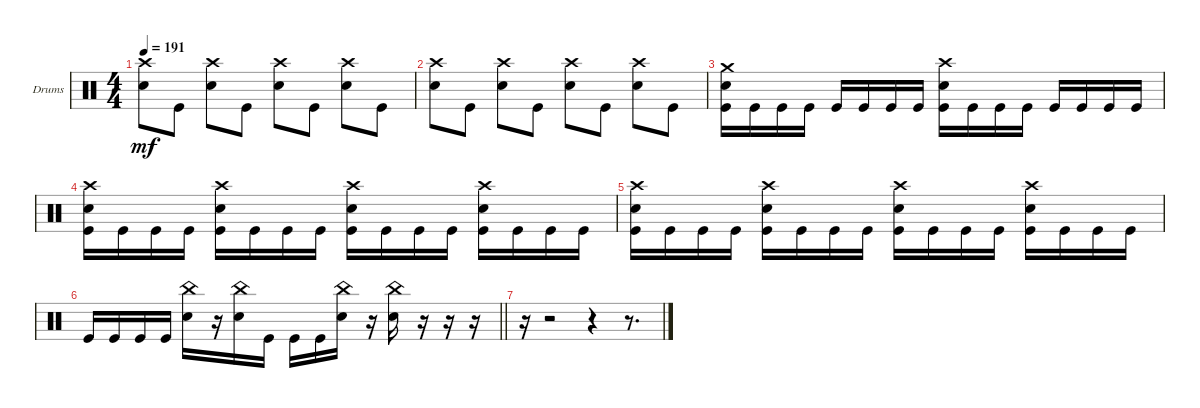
\bracketExtendMode groupsimilarinstruments
\firstSystemTrackNameOrientation horizontal
\otherSystemsTrackNameOrientation horizontal
\track ("Drumkit" "Drums") {instrument percussion}
\staff {score}
\articulation defaults
\ts (4 4)
\tempo 191
\clef neutral
\ks c
("Crash high (hit)" "Snare (hit) 2").8{dy mf} "Kick (hit)".8 ("Crash high (hit)" "Snare (hit) 2").8 "Kick (hit)".8 ("Crash high (hit)" "Snare (hit) 2").8 "Kick (hit)".8 ("Crash high (hit)" "Snare (hit) 2").8 "Kick (hit)".8 |
("Crash high (hit)" "Snare (hit) 2").8 "Kick (hit)".8 ("Crash high (hit)" "Snare (hit) 2").8 "Kick (hit)".8 ("Crash high (hit)" "Snare (hit) 2").8 "Kick (hit)".8 ("Crash high (hit)" "Snare (hit) 2").8 "Kick (hit)".8 |
("Crash medium (hit)" "Snare (hit) 2" "Kick (hit)").16 "Kick (hit)".16 "Kick (hit)".16 "Kick (hit)".16 "Kick (hit)".16 "Kick (hit)".16 "Kick (hit)".16 "Kick (hit)".16 ("Crash high (hit)" "Snare (hit) 2" "Kick (hit)").16 "Kick (hit)".16 "Kick (hit)".16 "Kick (hit)".16 "Kick (hit)".16 "Kick (hit)".16 "Kick (hit)".16 "Kick (hit)".16 |
("Crash high (hit)" "Snare (hit) 2" "Kick (hit)").16 "Kick (hit)".16 "Kick (hit)".16 "Kick (hit)".16 ("Crash high (hit)" "Snare (hit) 2" "Kick (hit)").16 "Kick (hit)".16 "Kick (hit)".16 "Kick (hit)".16 ("Crash high (hit)" "Snare (hit) 2" "Kick (hit)").16 "Kick (hit)".16 "Kick (hit)".16 "Kick (hit)".16 ("Crash high (hit)" "Snare (hit) 2" "Kick (hit)").16 "Kick (hit)".16 "Kick (hit)".16 "Kick (hit)".16 |
("Crash high (hit)" "Snare (hit) 2" "Kick (hit)").16 "Kick (hit)".16 "Kick (hit)".16 "Kick (hit)".16 ("Crash high (hit)" "Snare (hit) 2" "Kick (hit)").16 "Kick (hit)".16 "Kick (hit)".16 "Kick (hit)".16 ("Crash high (hit)" "Snare (hit) 2" "Kick (hit)").16 "Kick (hit)".16 "Kick (hit)".16 "Kick (hit)".16 ("Crash high (hit)" "Snare (hit) 2" "Kick (hit)").16 "Kick (hit)".16 "Kick (hit)".16 "Kick (hit)".16 |
\barLineRight lightlight "Kick (hit)".16 "Kick (hit)".16 "Kick (hit)".16 "Kick (hit)".16
("China (hit)" "Snare (hit) 2").16 r.16 ("China (hit)" "Snare (hit) 2").16 "Kick (hit)".16 "Kick (hit)".16 "Kick (hit)".16 ("China (hit)" "Snare (hit) 2").16 r.16 ("China (hit)" "Snare (hit) 2").16 r.16 r.16 r.16 |
r.16 r.2 r.4 r.8{d}
